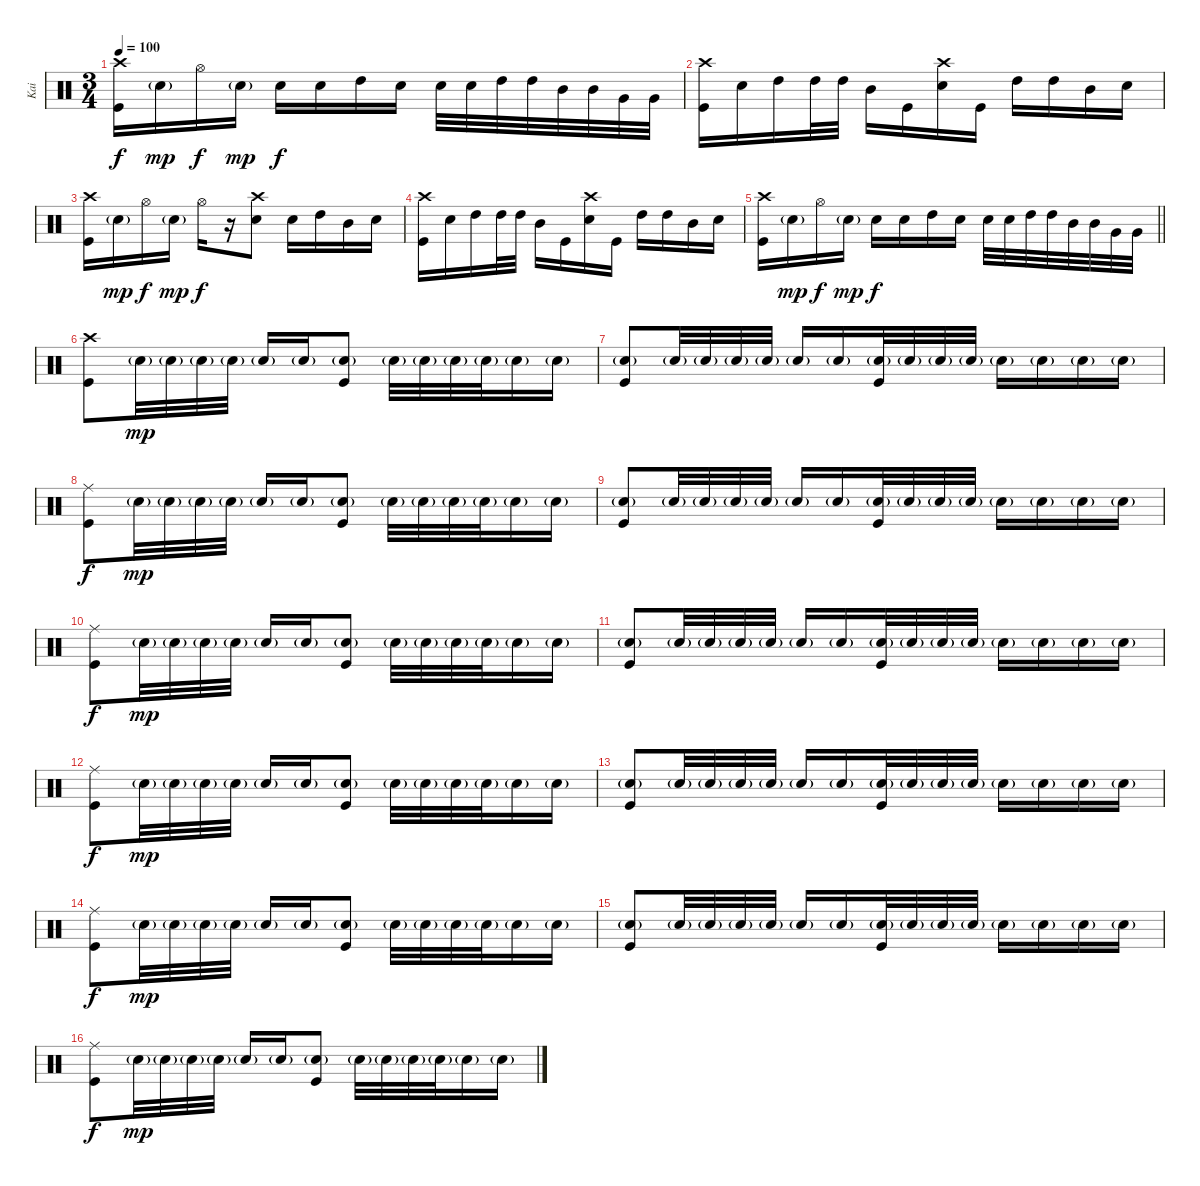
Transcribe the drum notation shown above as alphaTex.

\track ("Kai" "Kai") {instrument percussion}
\staff {score}
\articulation defaults
\ts (3 4)
\tempo 100
\clef neutral
\ks c
("Crash high (hit)" "Kick (hit)").16{dy f} "Snare (hit) 2"{g}.16{dy mp} "Hi-Hat (open)".16{dy f} "Snare (hit) 2"{g}.16{dy mp} "Snare (hit) 2".16{dy f} "Snare (hit) 2".16 "High Tom (hit)".16 "Snare (hit) 2".16 "Snare (hit) 2".32 "Snare (hit) 2".32 "High Tom (hit)".32 "High Tom (hit)".32 "Mid Tom (hit)".32 "Mid Tom (hit)".32 "Very Low Tom (hit)".32 "Very Low Tom (hit)".32 |
("Crash high (hit)" "Kick (hit)").16 "Snare (hit) 2".16 "High Tom (hit)".16 "High Tom (hit)".32 "High Tom (hit)".32 "Mid Tom (hit)".16 "Kick (hit)".16 ("Crash high (hit)" "Snare (hit) 2").16 "Kick (hit)".16 "High Tom (hit)".16 "High Tom (hit)".16 "Mid Tom (hit)".16 "Snare (hit) 2".16 |
("Crash high (hit)" "Kick (hit)").16 "Snare (hit) 2"{g}.16{dy mp} "Hi-Hat (open)".16{dy f} "Snare (hit) 2"{g}.16{dy mp} "Hi-Hat (open)".16{dy f} r.16 ("Crash high (hit)" "Snare (hit) 2").8 "Snare (hit) 2".16 "High Tom (hit)".16 "Mid Tom (hit)".16 "Snare (hit) 2".16 |
("Crash high (hit)" "Kick (hit)").16 "Snare (hit) 2".16 "High Tom (hit)".16 "High Tom (hit)".32 "High Tom (hit)".32 "Mid Tom (hit)".16 "Kick (hit)".16 ("Crash high (hit)" "Snare (hit) 2").16 "Kick (hit)".16 "High Tom (hit)".16 "High Tom (hit)".16 "Mid Tom (hit)".16 "Snare (hit) 2".16 |
\barLineRight lightlight
("Crash high (hit)" "Kick (hit)").16 "Snare (hit) 2"{g}.16{dy mp} "Hi-Hat (open)".16{dy f} "Snare (hit) 2"{g}.16{dy mp} "Snare (hit) 2".16{dy f} "Snare (hit) 2".16 "High Tom (hit)".16 "Snare (hit) 2".16 "Snare (hit) 2".32 "Snare (hit) 2".32 "High Tom (hit)".32 "High Tom (hit)".32 "Mid Tom (hit)".32 "Mid Tom (hit)".32 "Very Low Tom (hit)".32 "Very Low Tom (hit)".32 |
("Crash high (hit)" "Kick (hit)").8 "Snare (hit) 2"{g}.32{dy mp} "Snare (hit) 2"{g}.32 "Snare (hit) 2"{g}.32 "Snare (hit) 2"{g}.32 "Snare (hit) 2"{g}.16 "Snare (hit) 2"{g}.16 ("Snare (hit) 2"{g} "Kick (hit)").8 "Snare (hit) 2"{g}.32 "Snare (hit) 2"{g}.32 "Snare (hit) 2"{g}.32 "Snare (hit) 2"{g}.32 "Snare (hit) 2"{g}.16 "Snare (hit) 2"{g}.16 |
("Snare (hit) 2"{g} "Kick (hit)").8 "Snare (hit) 2"{g}.32 "Snare (hit) 2"{g}.32 "Snare (hit) 2"{g}.32 "Snare (hit) 2"{g}.32 "Snare (hit) 2"{g}.16 "Snare (hit) 2"{g}.16 ("Snare (hit) 2"{g} "Kick (hit)").32 "Snare (hit) 2"{g}.32 "Snare (hit) 2"{g}.32 "Snare (hit) 2"{g}.32 "Snare (hit) 2"{g}.16 "Snare (hit) 2"{g}.16 "Snare (hit) 2"{g}.16 "Snare (hit) 2"{g}.16 |
("Ride (middle)" "Kick (hit)").8{dy f} "Snare (hit) 2"{g}.32{dy mp} "Snare (hit) 2"{g}.32 "Snare (hit) 2"{g}.32 "Snare (hit) 2"{g}.32 "Snare (hit) 2"{g}.16 "Snare (hit) 2"{g}.16 ("Snare (hit) 2"{g} "Kick (hit)").8 "Snare (hit) 2"{g}.32 "Snare (hit) 2"{g}.32 "Snare (hit) 2"{g}.32 "Snare (hit) 2"{g}.32 "Snare (hit) 2"{g}.16 "Snare (hit) 2"{g}.16 |
("Snare (hit) 2"{g} "Kick (hit)").8 "Snare (hit) 2"{g}.32 "Snare (hit) 2"{g}.32 "Snare (hit) 2"{g}.32 "Snare (hit) 2"{g}.32 "Snare (hit) 2"{g}.16 "Snare (hit) 2"{g}.16 ("Snare (hit) 2"{g} "Kick (hit)").32 "Snare (hit) 2"{g}.32 "Snare (hit) 2"{g}.32 "Snare (hit) 2"{g}.32 "Snare (hit) 2"{g}.16 "Snare (hit) 2"{g}.16 "Snare (hit) 2"{g}.16 "Snare (hit) 2"{g}.16 |
("Ride (middle)" "Kick (hit)").8{dy f} "Snare (hit) 2"{g}.32{dy mp} "Snare (hit) 2"{g}.32 "Snare (hit) 2"{g}.32 "Snare (hit) 2"{g}.32 "Snare (hit) 2"{g}.16 "Snare (hit) 2"{g}.16 ("Snare (hit) 2"{g} "Kick (hit)").8 "Snare (hit) 2"{g}.32 "Snare (hit) 2"{g}.32 "Snare (hit) 2"{g}.32 "Snare (hit) 2"{g}.32 "Snare (hit) 2"{g}.16 "Snare (hit) 2"{g}.16 |
("Snare (hit) 2"{g} "Kick (hit)").8 "Snare (hit) 2"{g}.32 "Snare (hit) 2"{g}.32 "Snare (hit) 2"{g}.32 "Snare (hit) 2"{g}.32 "Snare (hit) 2"{g}.16 "Snare (hit) 2"{g}.16 ("Snare (hit) 2"{g} "Kick (hit)").32 "Snare (hit) 2"{g}.32 "Snare (hit) 2"{g}.32 "Snare (hit) 2"{g}.32 "Snare (hit) 2"{g}.16 "Snare (hit) 2"{g}.16 "Snare (hit) 2"{g}.16 "Snare (hit) 2"{g}.16 |
("Ride (middle)" "Kick (hit)").8{dy f} "Snare (hit) 2"{g}.32{dy mp} "Snare (hit) 2"{g}.32 "Snare (hit) 2"{g}.32 "Snare (hit) 2"{g}.32 "Snare (hit) 2"{g}.16 "Snare (hit) 2"{g}.16 ("Snare (hit) 2"{g} "Kick (hit)").8 "Snare (hit) 2"{g}.32 "Snare (hit) 2"{g}.32 "Snare (hit) 2"{g}.32 "Snare (hit) 2"{g}.32 "Snare (hit) 2"{g}.16 "Snare (hit) 2"{g}.16 |
("Snare (hit) 2"{g} "Kick (hit)").8 "Snare (hit) 2"{g}.32 "Snare (hit) 2"{g}.32 "Snare (hit) 2"{g}.32 "Snare (hit) 2"{g}.32 "Snare (hit) 2"{g}.16 "Snare (hit) 2"{g}.16 ("Snare (hit) 2"{g} "Kick (hit)").32 "Snare (hit) 2"{g}.32 "Snare (hit) 2"{g}.32 "Snare (hit) 2"{g}.32 "Snare (hit) 2"{g}.16 "Snare (hit) 2"{g}.16 "Snare (hit) 2"{g}.16 "Snare (hit) 2"{g}.16 |
("Ride (middle)" "Kick (hit)").8{dy f} "Snare (hit) 2"{g}.32{dy mp} "Snare (hit) 2"{g}.32 "Snare (hit) 2"{g}.32 "Snare (hit) 2"{g}.32 "Snare (hit) 2"{g}.16 "Snare (hit) 2"{g}.16 ("Snare (hit) 2"{g} "Kick (hit)").8 "Snare (hit) 2"{g}.32 "Snare (hit) 2"{g}.32 "Snare (hit) 2"{g}.32 "Snare (hit) 2"{g}.32 "Snare (hit) 2"{g}.16 "Snare (hit) 2"{g}.16 |
("Snare (hit) 2"{g} "Kick (hit)").8 "Snare (hit) 2"{g}.32 "Snare (hit) 2"{g}.32 "Snare (hit) 2"{g}.32 "Snare (hit) 2"{g}.32 "Snare (hit) 2"{g}.16 "Snare (hit) 2"{g}.16 ("Snare (hit) 2"{g} "Kick (hit)").32 "Snare (hit) 2"{g}.32 "Snare (hit) 2"{g}.32 "Snare (hit) 2"{g}.32 "Snare (hit) 2"{g}.16 "Snare (hit) 2"{g}.16 "Snare (hit) 2"{g}.16 "Snare (hit) 2"{g}.16 |
("Ride (middle)" "Kick (hit)").8{dy f} "Snare (hit) 2"{g}.32{dy mp} "Snare (hit) 2"{g}.32 "Snare (hit) 2"{g}.32 "Snare (hit) 2"{g}.32 "Snare (hit) 2"{g}.16 "Snare (hit) 2"{g}.16 ("Snare (hit) 2"{g} "Kick (hit)").8 "Snare (hit) 2"{g}.32 "Snare (hit) 2"{g}.32 "Snare (hit) 2"{g}.32 "Snare (hit) 2"{g}.32 "Snare (hit) 2"{g}.16 "Snare (hit) 2"{g}.16
